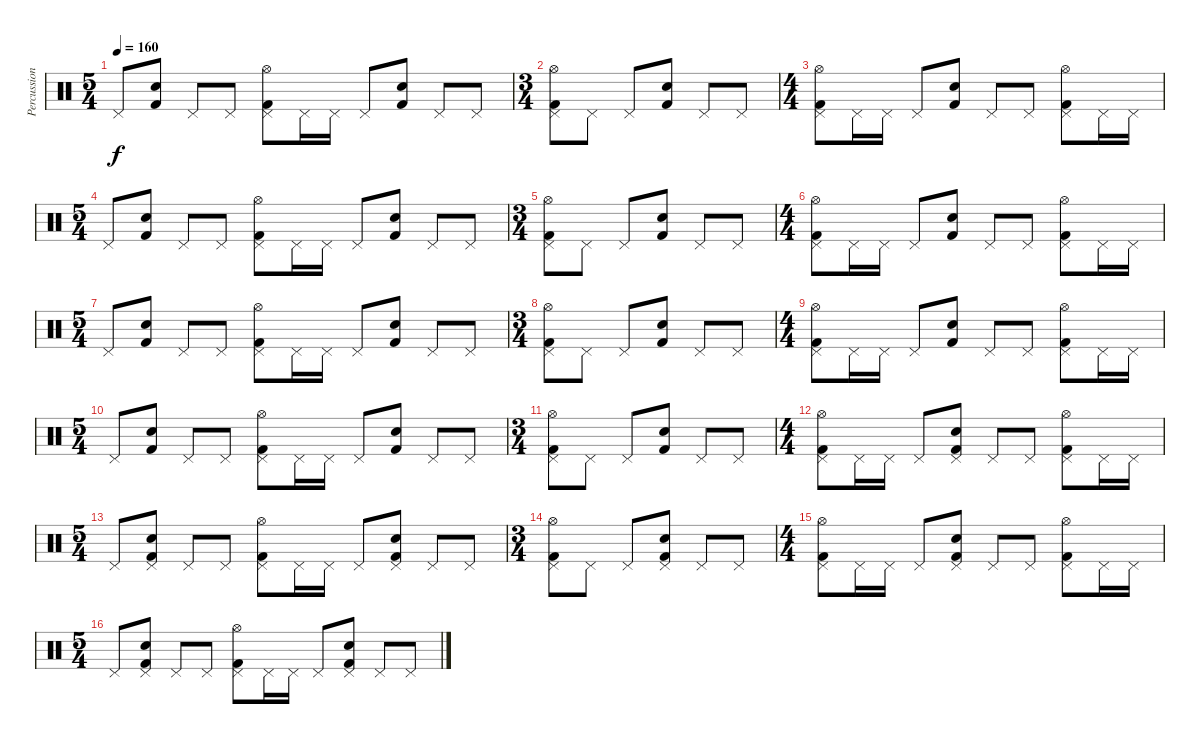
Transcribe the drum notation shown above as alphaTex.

\track ("Percussion" "Percussion") {instrument percussion}
\staff {score}
\articulation defaults
\ts (5 4)
\tempo 160
\clef neutral
\ks c "Pedal Hi-Hat (hit)".8{dy f}
("Snare (hit) 2" "Kick (hit) 2").8 "Pedal Hi-Hat (hit)".8 "Pedal Hi-Hat (hit)".8 ("Hi-Hat (open)" "Kick (hit) 2" "Pedal Hi-Hat (hit)").8 "Pedal Hi-Hat (hit)".16 "Pedal Hi-Hat (hit)".16 "Pedal Hi-Hat (hit)".8 ("Snare (hit) 2" "Kick (hit) 2").8 "Pedal Hi-Hat (hit)".8 "Pedal Hi-Hat (hit)".8 |
\ts (3 4)
("Hi-Hat (open)" "Kick (hit) 2" "Pedal Hi-Hat (hit)").8 "Pedal Hi-Hat (hit)".8 "Pedal Hi-Hat (hit)".8 ("Snare (hit) 2" "Kick (hit) 2").8 "Pedal Hi-Hat (hit)".8 "Pedal Hi-Hat (hit)".8 |
\ts (4 4)
("Hi-Hat (open)" "Kick (hit) 2" "Pedal Hi-Hat (hit)").8 "Pedal Hi-Hat (hit)".16 "Pedal Hi-Hat (hit)".16 "Pedal Hi-Hat (hit)".8 ("Snare (hit) 2" "Kick (hit) 2").8 "Pedal Hi-Hat (hit)".8 "Pedal Hi-Hat (hit)".8 ("Hi-Hat (open)" "Kick (hit) 2" "Pedal Hi-Hat (hit)").8 "Pedal Hi-Hat (hit)".16 "Pedal Hi-Hat (hit)".16 |
\ts (5 4)
"Pedal Hi-Hat (hit)".8 ("Snare (hit) 2" "Kick (hit) 2").8 "Pedal Hi-Hat (hit)".8 "Pedal Hi-Hat (hit)".8 ("Hi-Hat (open)" "Kick (hit) 2" "Pedal Hi-Hat (hit)").8 "Pedal Hi-Hat (hit)".16 "Pedal Hi-Hat (hit)".16 "Pedal Hi-Hat (hit)".8 ("Snare (hit) 2" "Kick (hit) 2").8 "Pedal Hi-Hat (hit)".8 "Pedal Hi-Hat (hit)".8 |
\ts (3 4)
("Hi-Hat (open)" "Kick (hit) 2" "Pedal Hi-Hat (hit)").8 "Pedal Hi-Hat (hit)".8 "Pedal Hi-Hat (hit)".8 ("Snare (hit) 2" "Kick (hit) 2").8 "Pedal Hi-Hat (hit)".8 "Pedal Hi-Hat (hit)".8 |
\ts (4 4)
("Hi-Hat (open)" "Kick (hit) 2" "Pedal Hi-Hat (hit)").8 "Pedal Hi-Hat (hit)".16 "Pedal Hi-Hat (hit)".16 "Pedal Hi-Hat (hit)".8 ("Snare (hit) 2" "Kick (hit) 2").8 "Pedal Hi-Hat (hit)".8 "Pedal Hi-Hat (hit)".8 ("Hi-Hat (open)" "Kick (hit) 2" "Pedal Hi-Hat (hit)").8 "Pedal Hi-Hat (hit)".16 "Pedal Hi-Hat (hit)".16 |
\ts (5 4)
"Pedal Hi-Hat (hit)".8 ("Snare (hit) 2" "Kick (hit) 2").8 "Pedal Hi-Hat (hit)".8 "Pedal Hi-Hat (hit)".8 ("Hi-Hat (open)" "Kick (hit) 2" "Pedal Hi-Hat (hit)").8 "Pedal Hi-Hat (hit)".16 "Pedal Hi-Hat (hit)".16 "Pedal Hi-Hat (hit)".8 ("Snare (hit) 2" "Kick (hit) 2").8 "Pedal Hi-Hat (hit)".8 "Pedal Hi-Hat (hit)".8 |
\ts (3 4)
("Hi-Hat (open)" "Kick (hit) 2" "Pedal Hi-Hat (hit)").8 "Pedal Hi-Hat (hit)".8 "Pedal Hi-Hat (hit)".8 ("Snare (hit) 2" "Kick (hit) 2").8 "Pedal Hi-Hat (hit)".8 "Pedal Hi-Hat (hit)".8 |
\ts (4 4)
("Hi-Hat (open)" "Kick (hit) 2" "Pedal Hi-Hat (hit)").8 "Pedal Hi-Hat (hit)".16 "Pedal Hi-Hat (hit)".16 "Pedal Hi-Hat (hit)".8 ("Snare (hit) 2" "Kick (hit) 2").8 "Pedal Hi-Hat (hit)".8 "Pedal Hi-Hat (hit)".8 ("Hi-Hat (open)" "Kick (hit) 2" "Pedal Hi-Hat (hit)").8 "Pedal Hi-Hat (hit)".16 "Pedal Hi-Hat (hit)".16 |
\ts (5 4)
"Pedal Hi-Hat (hit)".8 ("Snare (hit) 2" "Kick (hit) 2").8 "Pedal Hi-Hat (hit)".8 "Pedal Hi-Hat (hit)".8 ("Hi-Hat (open)" "Kick (hit) 2" "Pedal Hi-Hat (hit)").8 "Pedal Hi-Hat (hit)".16 "Pedal Hi-Hat (hit)".16 "Pedal Hi-Hat (hit)".8 ("Snare (hit) 2" "Kick (hit) 2").8 "Pedal Hi-Hat (hit)".8 "Pedal Hi-Hat (hit)".8 |
\ts (3 4)
("Hi-Hat (open)" "Kick (hit) 2" "Pedal Hi-Hat (hit)").8 "Pedal Hi-Hat (hit)".8 "Pedal Hi-Hat (hit)".8 ("Snare (hit) 2" "Kick (hit) 2").8 "Pedal Hi-Hat (hit)".8 "Pedal Hi-Hat (hit)".8 |
\ts (4 4)
("Hi-Hat (open)" "Kick (hit) 2" "Pedal Hi-Hat (hit)").8 "Pedal Hi-Hat (hit)".16 "Pedal Hi-Hat (hit)".16 "Pedal Hi-Hat (hit)".8 ("Snare (hit) 2" "Kick (hit) 2" "Pedal Hi-Hat (hit)").8 "Pedal Hi-Hat (hit)".8 "Pedal Hi-Hat (hit)".8 ("Hi-Hat (open)" "Kick (hit) 2" "Pedal Hi-Hat (hit)").8 "Pedal Hi-Hat (hit)".16 "Pedal Hi-Hat (hit)".16 |
\ts (5 4)
"Pedal Hi-Hat (hit)".8 ("Snare (hit) 2" "Kick (hit) 2" "Pedal Hi-Hat (hit)").8 "Pedal Hi-Hat (hit)".8 "Pedal Hi-Hat (hit)".8 ("Hi-Hat (open)" "Kick (hit) 2" "Pedal Hi-Hat (hit)").8 "Pedal Hi-Hat (hit)".16 "Pedal Hi-Hat (hit)".16 "Pedal Hi-Hat (hit)".8 ("Snare (hit) 2" "Kick (hit) 2" "Pedal Hi-Hat (hit)").8 "Pedal Hi-Hat (hit)".8 "Pedal Hi-Hat (hit)".8 |
\ts (3 4)
("Hi-Hat (open)" "Kick (hit) 2" "Pedal Hi-Hat (hit)").8 "Pedal Hi-Hat (hit)".8 "Pedal Hi-Hat (hit)".8 ("Snare (hit) 2" "Kick (hit) 2" "Pedal Hi-Hat (hit)").8 "Pedal Hi-Hat (hit)".8 "Pedal Hi-Hat (hit)".8 |
\ts (4 4)
("Hi-Hat (open)" "Kick (hit) 2" "Pedal Hi-Hat (hit)").8 "Pedal Hi-Hat (hit)".16 "Pedal Hi-Hat (hit)".16 "Pedal Hi-Hat (hit)".8 ("Snare (hit) 2" "Kick (hit) 2" "Pedal Hi-Hat (hit)").8 "Pedal Hi-Hat (hit)".8 "Pedal Hi-Hat (hit)".8 ("Hi-Hat (open)" "Kick (hit) 2" "Pedal Hi-Hat (hit)").8 "Pedal Hi-Hat (hit)".16 "Pedal Hi-Hat (hit)".16 |
\ts (5 4)
"Pedal Hi-Hat (hit)".8 ("Snare (hit) 2" "Kick (hit) 2" "Pedal Hi-Hat (hit)").8 "Pedal Hi-Hat (hit)".8 "Pedal Hi-Hat (hit)".8 ("Hi-Hat (open)" "Kick (hit) 2" "Pedal Hi-Hat (hit)").8 "Pedal Hi-Hat (hit)".16 "Pedal Hi-Hat (hit)".16 "Pedal Hi-Hat (hit)".8 ("Snare (hit) 2" "Kick (hit) 2" "Pedal Hi-Hat (hit)").8 "Pedal Hi-Hat (hit)".8 "Pedal Hi-Hat (hit)".8
